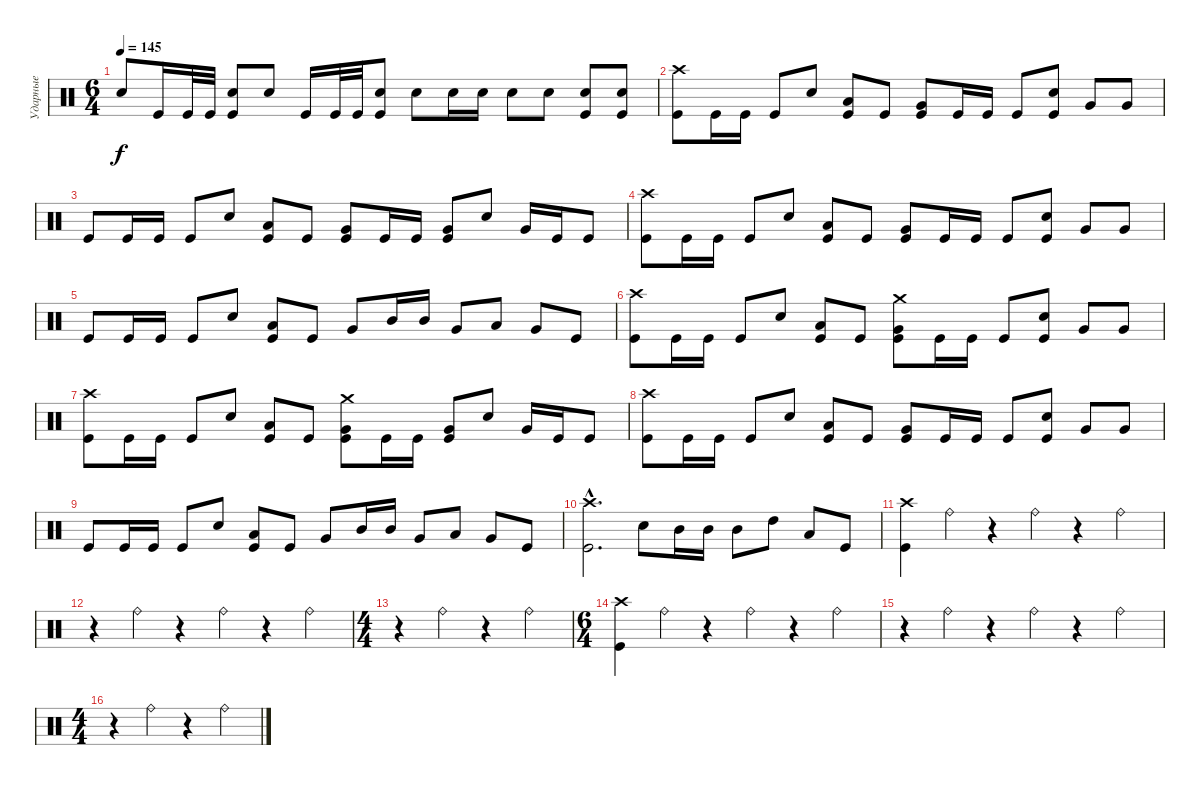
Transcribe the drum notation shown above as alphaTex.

\track ("Ударные" "Ударные") {instrument percussion}
\staff {score}
\articulation defaults
\ts (6 4)
\tempo 145
\clef neutral
\ks c "Electric Snare (hit)".8{dy f} "Kick (hit)".16 "Kick (hit)".32 "Kick (hit)".32
("Electric Snare (hit)" "Kick (hit)").8 "Electric Snare (hit)".8 "Kick (hit)".16 "Kick (hit)".32 "Kick (hit)".32 ("Electric Snare (hit)" "Kick (hit)").8 "Electric Snare (hit)".8 "Electric Snare (hit)".16 "Electric Snare (hit)".16 "Electric Snare (hit)".8 "Electric Snare (hit)".8 ("Electric Snare (hit)" "Kick (hit)").8 ("Electric Snare (hit)" "Kick (hit)").8 |
("Crash high (hit)" "Kick (hit)").8 "Kick (hit)".16 "Kick (hit)".16 "Kick (hit)".8 "Electric Snare (hit)".8 ("Low Tom (hit)" "Kick (hit)").8 "Kick (hit)".8 ("Very Low Tom (hit)" "Kick (hit)").8 "Kick (hit)".16 "Kick (hit)".16 "Kick (hit)".8 ("Electric Snare (hit)" "Kick (hit)").8 "Very Low Tom (hit)".8 "Very Low Tom (hit)".8 |
"Kick (hit)".8 "Kick (hit)".16 "Kick (hit)".16 "Kick (hit)".8 "Electric Snare (hit)".8 ("Low Tom (hit)" "Kick (hit)").8 "Kick (hit)".8 ("Very Low Tom (hit)" "Kick (hit)").8 "Kick (hit)".16 "Kick (hit)".16 ("Very Low Tom (hit)" "Kick (hit)").8 "Electric Snare (hit)".8 "Very Low Tom (hit)".16 "Kick (hit)".16 "Kick (hit)".8 |
("Crash high (hit)" "Kick (hit)").8 "Kick (hit)".16 "Kick (hit)".16 "Kick (hit)".8 "Electric Snare (hit)".8 ("Low Tom (hit)" "Kick (hit)").8 "Kick (hit)".8 ("Very Low Tom (hit)" "Kick (hit)").8 "Kick (hit)".16 "Kick (hit)".16 "Kick (hit)".8 ("Electric Snare (hit)" "Kick (hit)").8 "Very Low Tom (hit)".8 "Very Low Tom (hit)".8 |
"Kick (hit)".8 "Kick (hit)".16 "Kick (hit)".16 "Kick (hit)".8 "Electric Snare (hit)".8 ("Low Tom (hit)" "Kick (hit)").8 "Kick (hit)".8 "Very Low Tom (hit)".8 "Mid Tom (hit)".16 "Mid Tom (hit)".16 "Very Low Tom (hit)".8 "Low Tom (hit)".8 "Very Low Tom (hit)".8 "Kick (hit)".8 |
("Crash high (hit)" "Kick (hit)").8 "Kick (hit)".16 "Kick (hit)".16 "Kick (hit)".8 "Electric Snare (hit)".8 ("Low Tom (hit)" "Kick (hit)").8 "Kick (hit)".8 ("Crash medium (hit)" "Very Low Tom (hit)" "Kick (hit)").8 "Kick (hit)".16 "Kick (hit)".16 "Kick (hit)".8 ("Electric Snare (hit)" "Kick (hit)").8 "Very Low Tom (hit)".8 "Very Low Tom (hit)".8 |
("Crash high (hit)" "Kick (hit)").8 "Kick (hit)".16 "Kick (hit)".16 "Kick (hit)".8 "Electric Snare (hit)".8 ("Low Tom (hit)" "Kick (hit)").8 "Kick (hit)".8 ("Crash medium (hit)" "Very Low Tom (hit)" "Kick (hit)").8 "Kick (hit)".16 "Kick (hit)".16 ("Very Low Tom (hit)" "Kick (hit)").8 "Electric Snare (hit)".8 "Very Low Tom (hit)".16 "Kick (hit)".16 "Kick (hit)".8 |
("Crash high (hit)" "Kick (hit)").8 "Kick (hit)".16 "Kick (hit)".16 "Kick (hit)".8 "Electric Snare (hit)".8 ("Low Tom (hit)" "Kick (hit)").8 "Kick (hit)".8 ("Very Low Tom (hit)" "Kick (hit)").8 "Kick (hit)".16 "Kick (hit)".16 "Kick (hit)".8 ("Electric Snare (hit)" "Kick (hit)").8 "Very Low Tom (hit)".8 "Very Low Tom (hit)".8 |
"Kick (hit)".8 "Kick (hit)".16 "Kick (hit)".16 "Kick (hit)".8 "Electric Snare (hit)".8 ("Low Tom (hit)" "Kick (hit)").8 "Kick (hit)".8 "Very Low Tom (hit)".8 "Mid Tom (hit)".16 "Mid Tom (hit)".16 "Very Low Tom (hit)".8 "Low Tom (hit)".8 "Very Low Tom (hit)".8 "Kick (hit)".8 |
("Crash high (hit)"{hac} "Kick (hit)"{hac}).2{d} "Electric Snare (hit)".8 "Mid Tom (hit)".16 "Mid Tom (hit)".16 "Mid Tom (hit)".8 "High Tom (hit)".8 "Low Tom (hit)".8 "Kick (hit)".8 |
("Crash high (hit)" "Kick (hit)").4 "Ride (bell)".4 r.4 "Ride (bell)".4 r.4 "Ride (bell)".4 |
r.4 "Ride (bell)".4 r.4 "Ride (bell)".4 r.4 "Ride (bell)".4 |
\ts (4 4)
r.4 "Ride (bell)".4 r.4 "Ride (bell)".4 |
\ts (6 4)
("Crash high (hit)" "Kick (hit)").4 "Ride (bell)".4 r.4 "Ride (bell)".4 r.4 "Ride (bell)".4 |
r.4 "Ride (bell)".4 r.4 "Ride (bell)".4 r.4 "Ride (bell)".4 |
\ts (4 4)
r.4 "Ride (bell)".4 r.4 "Ride (bell)".4
